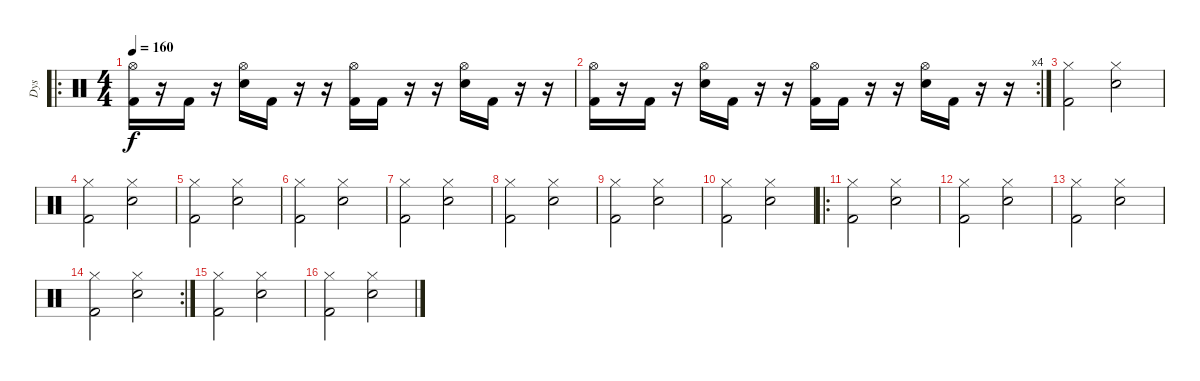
\track ("Dys" "Dys") {instrument percussion}
\staff {score}
\articulation defaults
\ro
\ts (4 4)
\tempo 160
\clef neutral
\ks c
("Hi-Hat (open)" "Kick (hit) 2").16{dy f} r.16 "Kick (hit) 2".16 r.16 ("Hi-Hat (open)" "Snare (hit) 2").16 "Kick (hit) 2".16 r.16 r.16 ("Hi-Hat (open)" "Kick (hit) 2").16 "Kick (hit) 2".16 r.16 r.16 ("Hi-Hat (open)" "Snare (hit) 2").16 "Kick (hit) 2".16 r.16 r.16 |
\rc 4
("Hi-Hat (open)" "Kick (hit) 2").16 r.16 "Kick (hit) 2".16 r.16 ("Hi-Hat (open)" "Snare (hit) 2").16 "Kick (hit) 2".16 r.16 r.16 ("Hi-Hat (open)" "Kick (hit) 2").16 "Kick (hit) 2".16 r.16 r.16 ("Hi-Hat (open)" "Snare (hit) 2").16 "Kick (hit) 2".16 r.16 r.16 |
("Hi-Hat (closed)" "Kick (hit) 2").2 ("Hi-Hat (closed)" "Snare (hit) 2").2 |
("Hi-Hat (closed)" "Kick (hit) 2").2 ("Hi-Hat (closed)" "Snare (hit) 2").2 |
("Hi-Hat (closed)" "Kick (hit) 2").2 ("Hi-Hat (closed)" "Snare (hit) 2").2 |
("Hi-Hat (closed)" "Kick (hit) 2").2 ("Hi-Hat (closed)" "Snare (hit) 2").2 |
("Hi-Hat (closed)" "Kick (hit) 2").2 ("Hi-Hat (closed)" "Snare (hit) 2").2 |
("Hi-Hat (closed)" "Kick (hit) 2").2 ("Hi-Hat (closed)" "Snare (hit) 2").2 |
("Hi-Hat (closed)" "Kick (hit) 2").2 ("Hi-Hat (closed)" "Snare (hit) 2").2 |
("Hi-Hat (closed)" "Kick (hit) 2").2 ("Hi-Hat (closed)" "Snare (hit) 2").2 |
\ro
("Hi-Hat (closed)" "Kick (hit) 2").2 ("Hi-Hat (closed)" "Snare (hit) 2").2 |
("Hi-Hat (closed)" "Kick (hit) 2").2 ("Hi-Hat (closed)" "Snare (hit) 2").2 |
("Hi-Hat (closed)" "Kick (hit) 2").2 ("Hi-Hat (closed)" "Snare (hit) 2").2 |
\rc 2
("Hi-Hat (closed)" "Kick (hit) 2").2 ("Hi-Hat (closed)" "Snare (hit) 2").2 |
("Hi-Hat (closed)" "Kick (hit) 2").2 ("Hi-Hat (closed)" "Snare (hit) 2").2 |
("Hi-Hat (closed)" "Kick (hit) 2").2 ("Hi-Hat (closed)" "Snare (hit) 2").2
